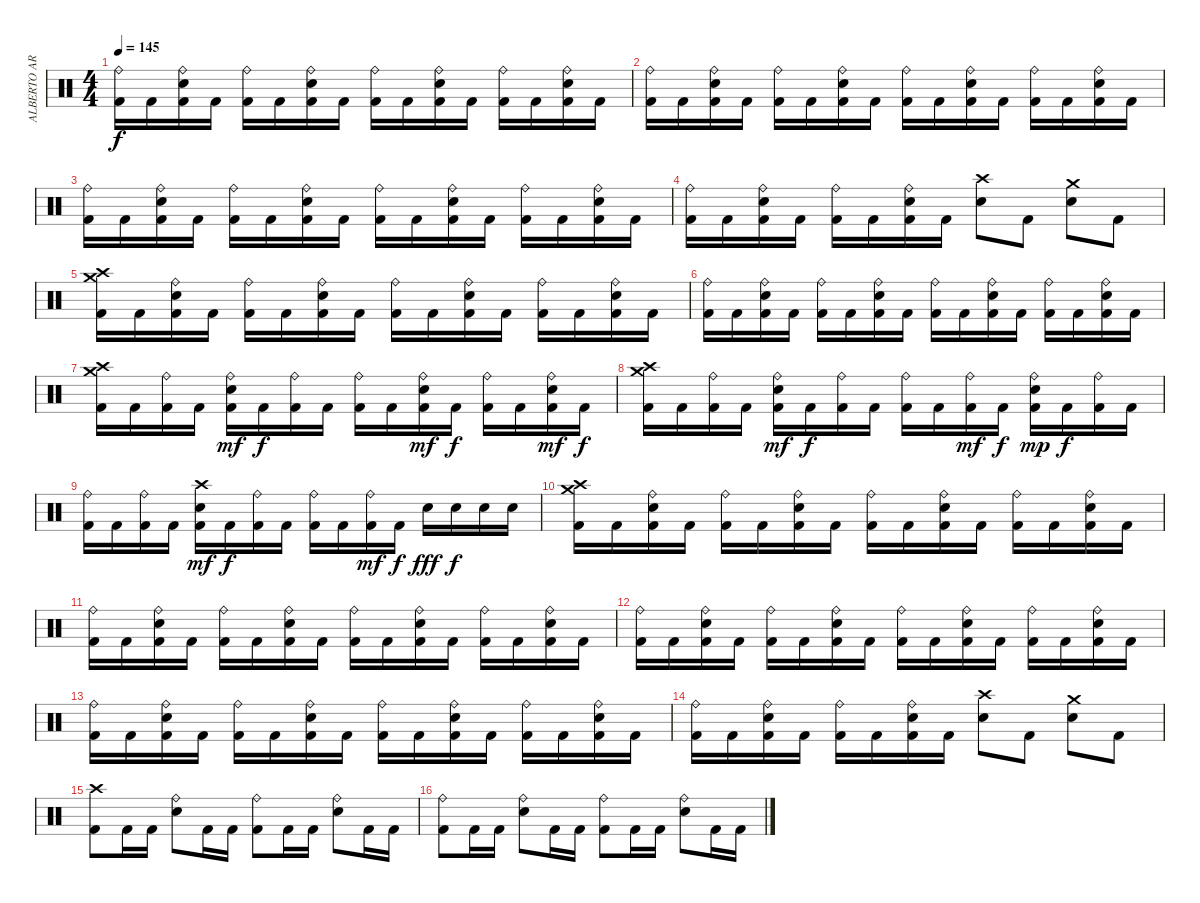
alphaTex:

\track ("ALBERTO ARDINES" "ALBERTO AR") {instrument percussion}
\staff {score}
\articulation defaults
\ts (4 4)
\tempo 145
\clef neutral
\ks c
("Ride (bell)" "Kick (hit) 2").16{dy f} "Kick (hit) 2".16 ("Ride (bell)" "Electric Snare (hit)" "Kick (hit) 2").16 "Kick (hit) 2".16 ("Ride (bell)" "Kick (hit) 2").16 "Kick (hit) 2".16 ("Ride (bell)" "Electric Snare (hit)" "Kick (hit) 2").16 "Kick (hit) 2".16 ("Ride (bell)" "Kick (hit) 2").16 "Kick (hit) 2".16 ("Ride (bell)" "Electric Snare (hit)" "Kick (hit) 2").16 "Kick (hit) 2".16 ("Ride (bell)" "Kick (hit) 2").16 "Kick (hit) 2".16 ("Ride (bell)" "Electric Snare (hit)" "Kick (hit) 2").16 "Kick (hit) 2".16 |
("Ride (bell)" "Kick (hit) 2").16 "Kick (hit) 2".16 ("Ride (bell)" "Electric Snare (hit)" "Kick (hit) 2").16 "Kick (hit) 2".16 ("Ride (bell)" "Kick (hit) 2").16 "Kick (hit) 2".16 ("Ride (bell)" "Electric Snare (hit)" "Kick (hit) 2").16 "Kick (hit) 2".16 ("Ride (bell)" "Kick (hit) 2").16 "Kick (hit) 2".16 ("Ride (bell)" "Electric Snare (hit)" "Kick (hit) 2").16 "Kick (hit) 2".16 ("Ride (bell)" "Kick (hit) 2").16 "Kick (hit) 2".16 ("Ride (bell)" "Electric Snare (hit)" "Kick (hit) 2").16 "Kick (hit) 2".16 |
("Ride (bell)" "Kick (hit) 2").16 "Kick (hit) 2".16 ("Ride (bell)" "Electric Snare (hit)" "Kick (hit) 2").16 "Kick (hit) 2".16 ("Ride (bell)" "Kick (hit) 2").16 "Kick (hit) 2".16 ("Ride (bell)" "Electric Snare (hit)" "Kick (hit) 2").16 "Kick (hit) 2".16 ("Ride (bell)" "Kick (hit) 2").16 "Kick (hit) 2".16 ("Ride (bell)" "Electric Snare (hit)" "Kick (hit) 2").16 "Kick (hit) 2".16 ("Ride (bell)" "Kick (hit) 2").16 "Kick (hit) 2".16 ("Ride (bell)" "Electric Snare (hit)" "Kick (hit) 2").16 "Kick (hit) 2".16 |
("Ride (bell)" "Kick (hit) 2").16 "Kick (hit) 2".16 ("Ride (bell)" "Electric Snare (hit)" "Kick (hit) 2").16 "Kick (hit) 2".16 ("Ride (bell)" "Kick (hit) 2").16 "Kick (hit) 2".16 ("Ride (bell)" "Electric Snare (hit)" "Kick (hit) 2").16 "Kick (hit) 2".16 ("Crash high (hit)" "Electric Snare (hit)").8 "Kick (hit) 2".8 ("Crash medium (hit)" "Electric Snare (hit)").8 "Kick (hit) 2".8 |
("Crash high (hit)" "Crash medium (hit)" "Kick (hit) 2").16 "Kick (hit) 2".16 ("Ride (bell)" "Electric Snare (hit)" "Kick (hit) 2").16 "Kick (hit) 2".16 ("Ride (bell)" "Kick (hit) 2").16 "Kick (hit) 2".16 ("Ride (bell)" "Electric Snare (hit)" "Kick (hit) 2").16 "Kick (hit) 2".16 ("Ride (bell)" "Kick (hit) 2").16 "Kick (hit) 2".16 ("Ride (bell)" "Electric Snare (hit)" "Kick (hit) 2").16 "Kick (hit) 2".16 ("Ride (bell)" "Kick (hit) 2").16 "Kick (hit) 2".16 ("Ride (bell)" "Electric Snare (hit)" "Kick (hit) 2").16 "Kick (hit) 2".16 |
("Ride (bell)" "Kick (hit) 2").16 "Kick (hit) 2".16 ("Ride (bell)" "Electric Snare (hit)" "Kick (hit) 2").16 "Kick (hit) 2".16 ("Ride (bell)" "Kick (hit) 2").16 "Kick (hit) 2".16 ("Ride (bell)" "Electric Snare (hit)" "Kick (hit) 2").16 "Kick (hit) 2".16 ("Ride (bell)" "Kick (hit) 2").16 "Kick (hit) 2".16 ("Ride (bell)" "Electric Snare (hit)" "Kick (hit) 2").16 "Kick (hit) 2".16 ("Ride (bell)" "Kick (hit) 2").16 "Kick (hit) 2".16 ("Ride (bell)" "Electric Snare (hit)" "Kick (hit) 2").16 "Kick (hit) 2".16 |
("Crash high (hit)" "Crash medium (hit)" "Kick (hit) 2").16 "Kick (hit) 2".16 ("Ride (bell)" "Kick (hit) 2").16 "Kick (hit) 2".16 ("Ride (bell)" "Electric Snare (hit)" "Kick (hit) 2").16{dy mf} "Kick (hit) 2".16{dy f} ("Ride (bell)" "Kick (hit) 2").16 "Kick (hit) 2".16 ("Ride (bell)" "Kick (hit) 2").16 "Kick (hit) 2".16 ("Ride (bell)" "Electric Snare (hit)" "Kick (hit) 2").16{dy mf} "Kick (hit) 2".16{dy f} ("Ride (bell)" "Kick (hit) 2").16 "Kick (hit) 2".16 ("Ride (bell)" "Electric Snare (hit)" "Kick (hit) 2").16{dy mf} "Kick (hit) 2".16{dy f} |
("Crash high (hit)" "Crash medium (hit)" "Kick (hit) 2").16 "Kick (hit) 2".16 ("Ride (bell)" "Kick (hit) 2").16 "Kick (hit) 2".16 ("Ride (bell)" "Electric Snare (hit)" "Kick (hit) 2").16{dy mf} "Kick (hit) 2".16{dy f} ("Ride (bell)" "Kick (hit) 2").16 "Kick (hit) 2".16 ("Ride (bell)" "Kick (hit) 2").16 "Kick (hit) 2".16 ("Ride (bell)" "Kick (hit) 2").16{dy mf} "Kick (hit) 2".16{dy f} ("Ride (bell)" "Electric Snare (hit)" "Kick (hit) 2").16{dy mp} "Kick (hit) 2".16{dy f} ("Ride (bell)" "Kick (hit) 2").16 "Kick (hit) 2".16 |
("Ride (bell)" "Kick (hit) 2").16 "Kick (hit) 2".16 ("Ride (bell)" "Kick (hit) 2").16 "Kick (hit) 2".16 ("Crash high (hit)" "Electric Snare (hit)" "Kick (hit) 2").16{dy mf} "Kick (hit) 2".16{dy f} ("Ride (bell)" "Kick (hit) 2").16 "Kick (hit) 2".16 ("Ride (bell)" "Kick (hit) 2").16 "Kick (hit) 2".16 ("Ride (bell)" "Kick (hit) 2").16{dy mf} "Kick (hit) 2".16{dy f} "Electric Snare (hit)".16{dy fff} "Electric Snare (hit)".16{dy f} "Electric Snare (hit)".16 "Electric Snare (hit)".16 |
("Crash high (hit)" "Crash medium (hit)" "Kick (hit) 2").16 "Kick (hit) 2".16 ("Ride (bell)" "Electric Snare (hit)" "Kick (hit) 2").16 "Kick (hit) 2".16 ("Ride (bell)" "Kick (hit) 2").16 "Kick (hit) 2".16 ("Ride (bell)" "Electric Snare (hit)" "Kick (hit) 2").16 "Kick (hit) 2".16 ("Ride (bell)" "Kick (hit) 2").16 "Kick (hit) 2".16 ("Ride (bell)" "Electric Snare (hit)" "Kick (hit) 2").16 "Kick (hit) 2".16 ("Ride (bell)" "Kick (hit) 2").16 "Kick (hit) 2".16 ("Ride (bell)" "Electric Snare (hit)" "Kick (hit) 2").16 "Kick (hit) 2".16 |
("Ride (bell)" "Kick (hit) 2").16 "Kick (hit) 2".16 ("Ride (bell)" "Electric Snare (hit)" "Kick (hit) 2").16 "Kick (hit) 2".16 ("Ride (bell)" "Kick (hit) 2").16 "Kick (hit) 2".16 ("Ride (bell)" "Electric Snare (hit)" "Kick (hit) 2").16 "Kick (hit) 2".16 ("Ride (bell)" "Kick (hit) 2").16 "Kick (hit) 2".16 ("Ride (bell)" "Electric Snare (hit)" "Kick (hit) 2").16 "Kick (hit) 2".16 ("Ride (bell)" "Kick (hit) 2").16 "Kick (hit) 2".16 ("Ride (bell)" "Electric Snare (hit)" "Kick (hit) 2").16 "Kick (hit) 2".16 |
("Ride (bell)" "Kick (hit) 2").16 "Kick (hit) 2".16 ("Ride (bell)" "Electric Snare (hit)" "Kick (hit) 2").16 "Kick (hit) 2".16 ("Ride (bell)" "Kick (hit) 2").16 "Kick (hit) 2".16 ("Ride (bell)" "Electric Snare (hit)" "Kick (hit) 2").16 "Kick (hit) 2".16 ("Ride (bell)" "Kick (hit) 2").16 "Kick (hit) 2".16 ("Ride (bell)" "Electric Snare (hit)" "Kick (hit) 2").16 "Kick (hit) 2".16 ("Ride (bell)" "Kick (hit) 2").16 "Kick (hit) 2".16 ("Ride (bell)" "Electric Snare (hit)" "Kick (hit) 2").16 "Kick (hit) 2".16 |
("Ride (bell)" "Kick (hit) 2").16 "Kick (hit) 2".16 ("Ride (bell)" "Electric Snare (hit)" "Kick (hit) 2").16 "Kick (hit) 2".16 ("Ride (bell)" "Kick (hit) 2").16 "Kick (hit) 2".16 ("Ride (bell)" "Electric Snare (hit)" "Kick (hit) 2").16 "Kick (hit) 2".16 ("Ride (bell)" "Kick (hit) 2").16 "Kick (hit) 2".16 ("Ride (bell)" "Electric Snare (hit)" "Kick (hit) 2").16 "Kick (hit) 2".16 ("Ride (bell)" "Kick (hit) 2").16 "Kick (hit) 2".16 ("Ride (bell)" "Electric Snare (hit)" "Kick (hit) 2").16 "Kick (hit) 2".16 |
("Ride (bell)" "Kick (hit) 2").16 "Kick (hit) 2".16 ("Ride (bell)" "Electric Snare (hit)" "Kick (hit) 2").16 "Kick (hit) 2".16 ("Ride (bell)" "Kick (hit) 2").16 "Kick (hit) 2".16 ("Ride (bell)" "Electric Snare (hit)" "Kick (hit) 2").16 "Kick (hit) 2".16 ("Crash high (hit)" "Electric Snare (hit)").8 "Kick (hit) 2".8 ("Crash medium (hit)" "Electric Snare (hit)").8 "Kick (hit) 2".8 |
("Crash high (hit)" "Kick (hit) 2").8 "Kick (hit) 2".16 "Kick (hit) 2".16 ("Ride (bell)" "Electric Snare (hit)").8 "Kick (hit) 2".16 "Kick (hit) 2".16 ("Ride (bell)" "Kick (hit) 2").8 "Kick (hit) 2".16 "Kick (hit) 2".16 ("Ride (bell)" "Electric Snare (hit)").8 "Kick (hit) 2".16 "Kick (hit) 2".16 |
("Ride (bell)" "Kick (hit) 2").8 "Kick (hit) 2".16 "Kick (hit) 2".16 ("Ride (bell)" "Electric Snare (hit)").8 "Kick (hit) 2".16 "Kick (hit) 2".16 ("Ride (bell)" "Kick (hit) 2").8 "Kick (hit) 2".16 "Kick (hit) 2".16 ("Ride (bell)" "Electric Snare (hit)").8 "Kick (hit) 2".16 "Kick (hit) 2".16
